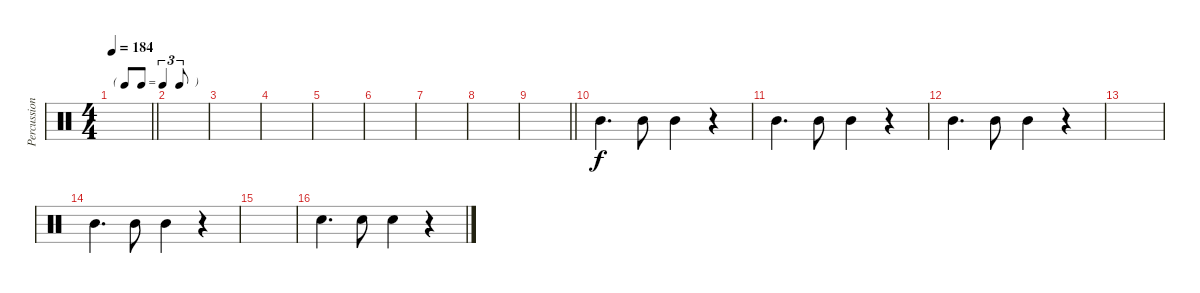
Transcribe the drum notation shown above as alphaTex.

\track ("Percussion" "Percussion") {instrument percussion}
\staff {score}
\articulation defaults
\ts (4 4)
\tf triplet8th
\tempo 184
\clef neutral
\barLineRight lightlight
\ks c
|
|
|
|
|
|
|
|
\barLineRight lightlight
|
"Mid Tom (hit)".4{d} "Mid Tom (hit)".8 "Mid Tom (hit)".4 r.4 |
"Mid Tom (hit)".4{d} "Mid Tom (hit)".8 "Mid Tom (hit)".4 r.4 |
"Mid Tom (hit)".4{d} "Mid Tom (hit)".8 "Mid Tom (hit)".4 r.4 |
|
"Mid Tom (hit)".4{d} "Mid Tom (hit)".8 "Mid Tom (hit)".4 r.4 |
|
"Snare (hit) 2".4{d} "Snare (hit) 2".8 "Snare (hit) 2".4 r.4
